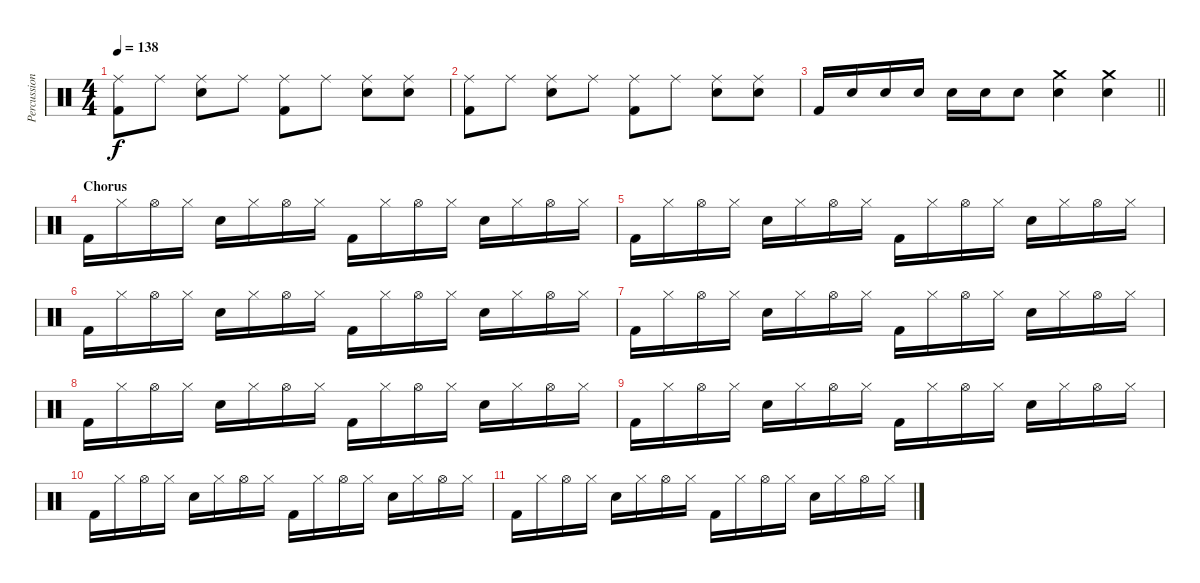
\track ("Percussion" "Percussion") {instrument percussion}
\staff {score}
\articulation defaults
\ts (4 4)
\tempo 138
\clef neutral
\ks c
("Kick (hit) 2" "Ride (middle)").8{dy f} "Ride (middle)".8 ("Electric Snare (hit)" "Ride (middle)").8 "Ride (middle)".8 ("Kick (hit) 2" "Ride (middle)").8 "Ride (middle)".8 ("Electric Snare (hit)" "Ride (middle)").8 ("Electric Snare (hit)" "Ride (middle)").8 |
("Kick (hit) 2" "Ride (middle)").8 "Ride (middle)".8 ("Electric Snare (hit)" "Ride (middle)").8 "Ride (middle)".8 ("Kick (hit) 2" "Ride (middle)").8 "Ride (middle)".8 ("Electric Snare (hit)" "Ride (middle)").8 ("Electric Snare (hit)" "Ride (middle)").8 |
\barLineRight lightlight "Kick (hit) 2".16 "Electric Snare (hit)".16 "Electric Snare (hit)".16 "Electric Snare (hit)".16 "Electric Snare (hit)".16 "Electric Snare (hit)".16 "Electric Snare (hit)".8
("Electric Snare (hit)" "Crash medium (hit)").4 ("Electric Snare (hit)" "Crash medium (hit)").4 |
\section ("" "Chorus")
"Kick (hit) 2".16 "Hi-Hat (closed)".16 "Hi-Hat (open)".16 "Hi-Hat (closed)".16 "Electric Snare (hit)".16 "Hi-Hat (closed)".16 "Hi-Hat (open)".16 "Hi-Hat (closed)".16 "Kick (hit) 2".16 "Hi-Hat (closed)".16 "Hi-Hat (open)".16 "Hi-Hat (closed)".16 "Electric Snare (hit)".16 "Hi-Hat (closed)".16 "Hi-Hat (open)".16 "Hi-Hat (closed)".16 |
"Kick (hit) 2".16 "Hi-Hat (closed)".16 "Hi-Hat (open)".16 "Hi-Hat (closed)".16 "Electric Snare (hit)".16 "Hi-Hat (closed)".16 "Hi-Hat (open)".16 "Hi-Hat (closed)".16 "Kick (hit) 2".16 "Hi-Hat (closed)".16 "Hi-Hat (open)".16 "Hi-Hat (closed)".16 "Electric Snare (hit)".16 "Hi-Hat (closed)".16 "Hi-Hat (open)".16 "Hi-Hat (closed)".16 |
"Kick (hit) 2".16 "Hi-Hat (closed)".16 "Hi-Hat (open)".16 "Hi-Hat (closed)".16 "Electric Snare (hit)".16 "Hi-Hat (closed)".16 "Hi-Hat (open)".16 "Hi-Hat (closed)".16 "Kick (hit) 2".16 "Hi-Hat (closed)".16 "Hi-Hat (open)".16 "Hi-Hat (closed)".16 "Electric Snare (hit)".16 "Hi-Hat (closed)".16 "Hi-Hat (open)".16 "Hi-Hat (closed)".16 |
"Kick (hit) 2".16 "Hi-Hat (closed)".16 "Hi-Hat (open)".16 "Hi-Hat (closed)".16 "Electric Snare (hit)".16 "Hi-Hat (closed)".16 "Hi-Hat (open)".16 "Hi-Hat (closed)".16 "Kick (hit) 2".16 "Hi-Hat (closed)".16 "Hi-Hat (open)".16 "Hi-Hat (closed)".16 "Electric Snare (hit)".16 "Hi-Hat (closed)".16 "Hi-Hat (open)".16 "Hi-Hat (closed)".16 |
"Kick (hit) 2".16 "Hi-Hat (closed)".16 "Hi-Hat (open)".16 "Hi-Hat (closed)".16 "Electric Snare (hit)".16 "Hi-Hat (closed)".16 "Hi-Hat (open)".16 "Hi-Hat (closed)".16 "Kick (hit) 2".16 "Hi-Hat (closed)".16 "Hi-Hat (open)".16 "Hi-Hat (closed)".16 "Electric Snare (hit)".16 "Hi-Hat (closed)".16 "Hi-Hat (open)".16 "Hi-Hat (closed)".16 |
"Kick (hit) 2".16 "Hi-Hat (closed)".16 "Hi-Hat (open)".16 "Hi-Hat (closed)".16 "Electric Snare (hit)".16 "Hi-Hat (closed)".16 "Hi-Hat (open)".16 "Hi-Hat (closed)".16 "Kick (hit) 2".16 "Hi-Hat (closed)".16 "Hi-Hat (open)".16 "Hi-Hat (closed)".16 "Electric Snare (hit)".16 "Hi-Hat (closed)".16 "Hi-Hat (open)".16 "Hi-Hat (closed)".16 |
"Kick (hit) 2".16 "Hi-Hat (closed)".16 "Hi-Hat (open)".16 "Hi-Hat (closed)".16 "Electric Snare (hit)".16 "Hi-Hat (closed)".16 "Hi-Hat (open)".16 "Hi-Hat (closed)".16 "Kick (hit) 2".16 "Hi-Hat (closed)".16 "Hi-Hat (open)".16 "Hi-Hat (closed)".16 "Electric Snare (hit)".16 "Hi-Hat (closed)".16 "Hi-Hat (open)".16 "Hi-Hat (closed)".16 |
"Kick (hit) 2".16 "Hi-Hat (closed)".16 "Hi-Hat (open)".16 "Hi-Hat (closed)".16 "Electric Snare (hit)".16 "Hi-Hat (closed)".16 "Hi-Hat (open)".16 "Hi-Hat (closed)".16 "Kick (hit) 2".16 "Hi-Hat (closed)".16 "Hi-Hat (open)".16 "Hi-Hat (closed)".16 "Electric Snare (hit)".16 "Hi-Hat (closed)".16 "Hi-Hat (open)".16 "Hi-Hat (closed)".16
